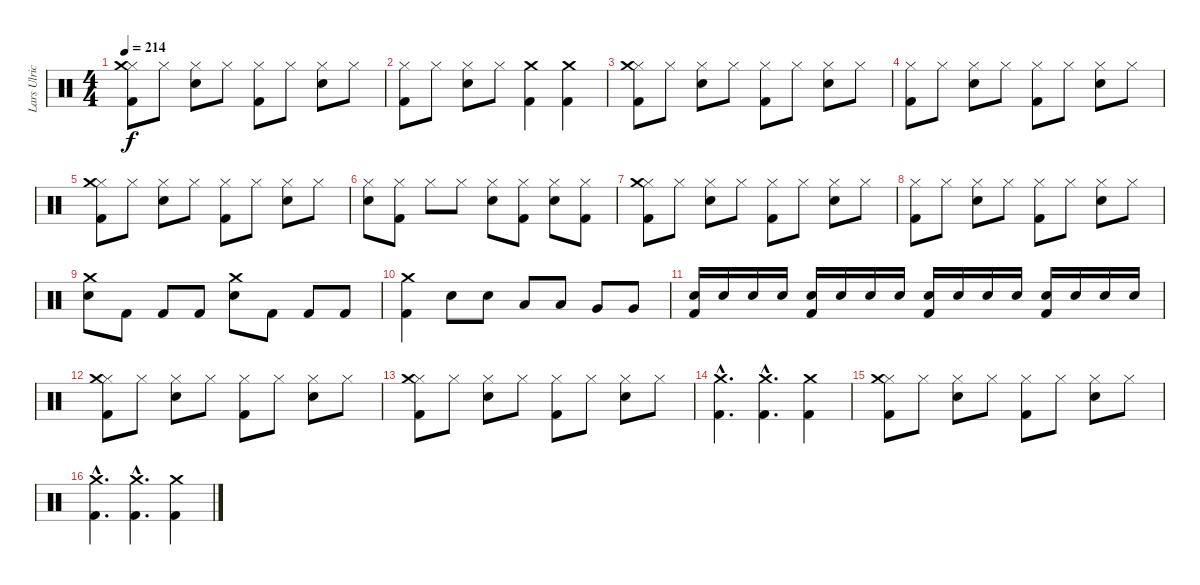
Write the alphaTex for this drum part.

\track ("Lars Ulrich" "Lars Ulric") {instrument percussion}
\staff {score}
\articulation defaults
\ts (4 4)
\tempo 214
\clef neutral
\ks c
("Hi-Hat (closed)" "Kick (hit) 2" "Crash medium (hit)").8{dy f} "Hi-Hat (closed)".8 ("Hi-Hat (closed)" "Snare (hit) 2").8 "Hi-Hat (closed)".8 ("Hi-Hat (closed)" "Kick (hit) 2").8 "Hi-Hat (closed)".8 ("Hi-Hat (closed)" "Snare (hit) 2").8 "Hi-Hat (closed)".8 |
("Hi-Hat (closed)" "Kick (hit) 2").8 "Hi-Hat (closed)".8 ("Hi-Hat (closed)" "Snare (hit) 2").8 "Hi-Hat (closed)".8 ("Kick (hit) 2" "Crash medium (hit)").4 ("Kick (hit) 2" "Crash medium (hit)").4 |
("Hi-Hat (closed)" "Kick (hit) 2" "Crash medium (hit)").8 "Hi-Hat (closed)".8 ("Hi-Hat (closed)" "Snare (hit) 2").8 "Hi-Hat (closed)".8 ("Hi-Hat (closed)" "Kick (hit) 2").8 "Hi-Hat (closed)".8 ("Hi-Hat (closed)" "Snare (hit) 2").8 "Hi-Hat (closed)".8 |
("Hi-Hat (closed)" "Kick (hit) 2").8 "Hi-Hat (closed)".8 ("Hi-Hat (closed)" "Snare (hit) 2").8 "Hi-Hat (closed)".8 ("Hi-Hat (closed)" "Kick (hit) 2").8 "Hi-Hat (closed)".8 ("Hi-Hat (closed)" "Snare (hit) 2").8 "Hi-Hat (closed)".8 |
("Hi-Hat (closed)" "Kick (hit) 2" "Crash medium (hit)").8 "Hi-Hat (closed)".8 ("Hi-Hat (closed)" "Snare (hit) 2").8 "Hi-Hat (closed)".8 ("Hi-Hat (closed)" "Kick (hit) 2").8 "Hi-Hat (closed)".8 ("Hi-Hat (closed)" "Snare (hit) 2").8 "Hi-Hat (closed)".8 |
("Hi-Hat (closed)" "Snare (hit) 2").8 ("Hi-Hat (closed)" "Kick (hit) 2").8 "Hi-Hat (closed)".8 "Hi-Hat (closed)".8 ("Hi-Hat (closed)" "Snare (hit) 2").8 ("Hi-Hat (closed)" "Kick (hit) 2").8 ("Hi-Hat (closed)" "Snare (hit) 2").8 ("Hi-Hat (closed)" "Kick (hit) 2").8 |
("Hi-Hat (closed)" "Kick (hit) 2" "Crash medium (hit)").8 "Hi-Hat (closed)".8 ("Hi-Hat (closed)" "Snare (hit) 2").8 "Hi-Hat (closed)".8 ("Hi-Hat (closed)" "Kick (hit) 2").8 "Hi-Hat (closed)".8 ("Hi-Hat (closed)" "Snare (hit) 2").8 "Hi-Hat (closed)".8 |
("Hi-Hat (closed)" "Kick (hit) 2").8 "Hi-Hat (closed)".8 ("Hi-Hat (closed)" "Snare (hit) 2").8 "Hi-Hat (closed)".8 ("Hi-Hat (closed)" "Kick (hit) 2").8 "Hi-Hat (closed)".8 ("Hi-Hat (closed)" "Snare (hit) 2").8 "Hi-Hat (closed)".8 |
("Snare (hit) 2" "Crash medium (hit)").8 "Kick (hit) 2".8 "Kick (hit) 2".8 "Kick (hit) 2".8 ("Snare (hit) 2" "Crash medium (hit)").8 "Kick (hit) 2".8 "Kick (hit) 2".8 "Kick (hit) 2".8 |
("Kick (hit) 2" "Crash medium (hit)").4 "Snare (hit) 2".8 "Snare (hit) 2".8 "Low Tom (hit)".8 "Low Tom (hit)".8 "Very Low Tom (hit)".8 "Very Low Tom (hit)".8 |
("Snare (hit) 2" "Kick (hit) 2").16{volume 7} "Snare (hit) 2".16 "Snare (hit) 2".16 "Snare (hit) 2".16 ("Snare (hit) 2" "Kick (hit) 2").16{volume 9} "Snare (hit) 2".16 "Snare (hit) 2".16 "Snare (hit) 2".16 ("Snare (hit) 2" "Kick (hit) 2").16{volume 11} "Snare (hit) 2".16 "Snare (hit) 2".16 "Snare (hit) 2".16 ("Snare (hit) 2" "Kick (hit) 2").16{volume 13} "Snare (hit) 2".16 "Snare (hit) 2".16 "Snare (hit) 2".16 |
("Hi-Hat (closed)" "Kick (hit) 2" "Crash medium (hit)").8 "Hi-Hat (closed)".8 ("Hi-Hat (closed)" "Snare (hit) 2").8 "Hi-Hat (closed)".8 ("Hi-Hat (closed)" "Kick (hit) 2").8 "Hi-Hat (closed)".8 ("Hi-Hat (closed)" "Snare (hit) 2").8 "Hi-Hat (closed)".8 |
("Hi-Hat (closed)" "Kick (hit) 2" "Crash medium (hit)").8 "Hi-Hat (closed)".8 ("Hi-Hat (closed)" "Snare (hit) 2").8 "Hi-Hat (closed)".8 ("Hi-Hat (closed)" "Kick (hit) 2").8 "Hi-Hat (closed)".8 ("Hi-Hat (closed)" "Snare (hit) 2").8 "Hi-Hat (closed)".8 |
("Kick (hit) 2"{hac} "Crash medium (hit)"{hac}).4{d} ("Crash medium (hit)"{hac} "Kick (hit) 2"{hac}).4{d} ("Kick (hit) 2" "Crash medium (hit)").4 |
("Hi-Hat (closed)" "Kick (hit) 2" "Crash medium (hit)").8 "Hi-Hat (closed)".8 ("Hi-Hat (closed)" "Snare (hit) 2").8 "Hi-Hat (closed)".8 ("Hi-Hat (closed)" "Kick (hit) 2").8 "Hi-Hat (closed)".8 ("Hi-Hat (closed)" "Snare (hit) 2").8 "Hi-Hat (closed)".8 |
("Kick (hit) 2"{hac} "Crash medium (hit)"{hac}).4{d} ("Crash medium (hit)"{hac} "Kick (hit) 2"{hac}).4{d} ("Kick (hit) 2" "Crash medium (hit)").4
